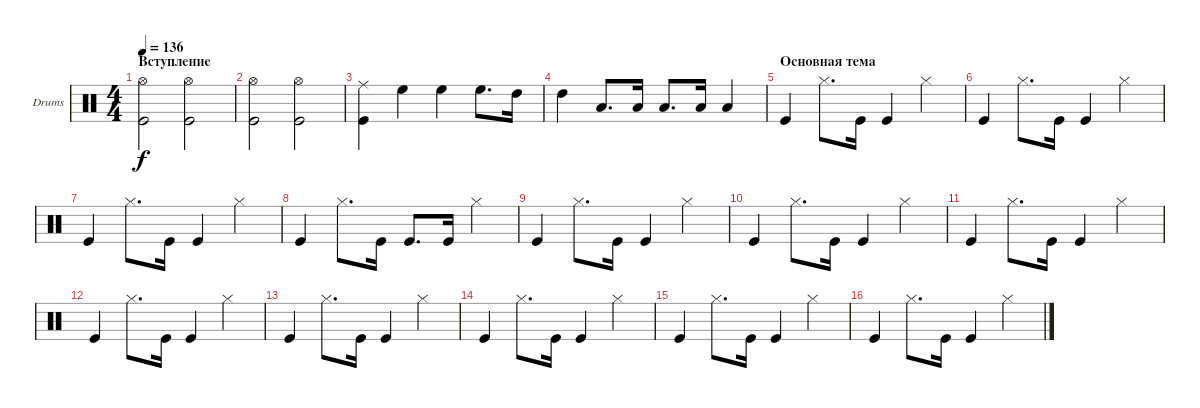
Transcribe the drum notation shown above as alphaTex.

\defaultSystemsLayout 4
\bracketExtendMode groupsimilarinstruments
\firstSystemTrackNameOrientation horizontal
\otherSystemsTrackNameOrientation horizontal
\track ("Drumkit" "Drums") {instrument percussion}
\staff {score}
\articulation defaults
\ts (4 4)
\section ("" "Вступление")
\scale
0.329879
\tempo 136
\accidentals auto
\clef neutral
\ottava regular
\simile none
\ks c
("Hi-Hat (open)" "Kick (hit)").2{dy f} ("Hi-Hat (open)" "Kick (hit)").2 |
\scale
0.34202 ("Hi-Hat (open)" "Kick (hit)").2 ("Hi-Hat (open)" "Kick (hit)").2 |
\scale
0.328418 ("Ride (middle)" "Kick (hit)").4 "High Floor Tom (hit)".4 "High Floor Tom (hit)".4 "High Floor Tom (hit)".8{d} "High Tom (hit)".16 |
\scale
0.316239 "High Tom (hit)".4 "Low Tom (hit)".8{d} "Low Tom (hit)".16 "Low Tom (hit)".8{d} "Low Tom (hit)".16 "Low Tom (hit)".4 |
\section ("" "Основная тема")
\scale
0.31793 "Kick (hit)".4 "Hi-Hat (closed)".8{d} "Kick (hit)".16 "Kick (hit)".4 "Hi-Hat (closed)".4 |
\scale
0.366069 "Kick (hit)".4 "Hi-Hat (closed)".8{d} "Kick (hit)".16 "Kick (hit)".4 "Hi-Hat (closed)".4 |
\scale
0.304641 "Kick (hit)".4 "Hi-Hat (closed)".8{d} "Kick (hit)".16 "Kick (hit)".4 "Hi-Hat (closed)".4 |
\scale
0.336229 "Kick (hit)".4 "Hi-Hat (closed)".8{d} "Kick (hit)".16 "Kick (hit)".8{d} "Kick (hit)".16 "Hi-Hat (closed)".4 |
\scale
0.359121 "Kick (hit)".4 "Hi-Hat (closed)".8{d} "Kick (hit)".16 "Kick (hit)".4 "Hi-Hat (closed)".4 |
"Kick (hit)".4 "Hi-Hat (closed)".8{d} "Kick (hit)".16 "Kick (hit)".4 "Hi-Hat (closed)".4 |
"Kick (hit)".4 "Hi-Hat (closed)".8{d} "Kick (hit)".16 "Kick (hit)".4 "Hi-Hat (closed)".4 |
"Kick (hit)".4 "Hi-Hat (closed)".8{d} "Kick (hit)".16 "Kick (hit)".4 "Hi-Hat (closed)".4 |
"Kick (hit)".4 "Hi-Hat (closed)".8{d} "Kick (hit)".16 "Kick (hit)".4 "Hi-Hat (closed)".4 |
"Kick (hit)".4 "Hi-Hat (closed)".8{d} "Kick (hit)".16 "Kick (hit)".4 "Hi-Hat (closed)".4 |
"Kick (hit)".4 "Hi-Hat (closed)".8{d} "Kick (hit)".16 "Kick (hit)".4 "Hi-Hat (closed)".4 |
"Kick (hit)".4 "Hi-Hat (closed)".8{d} "Kick (hit)".16 "Kick (hit)".4 "Hi-Hat (closed)".4
